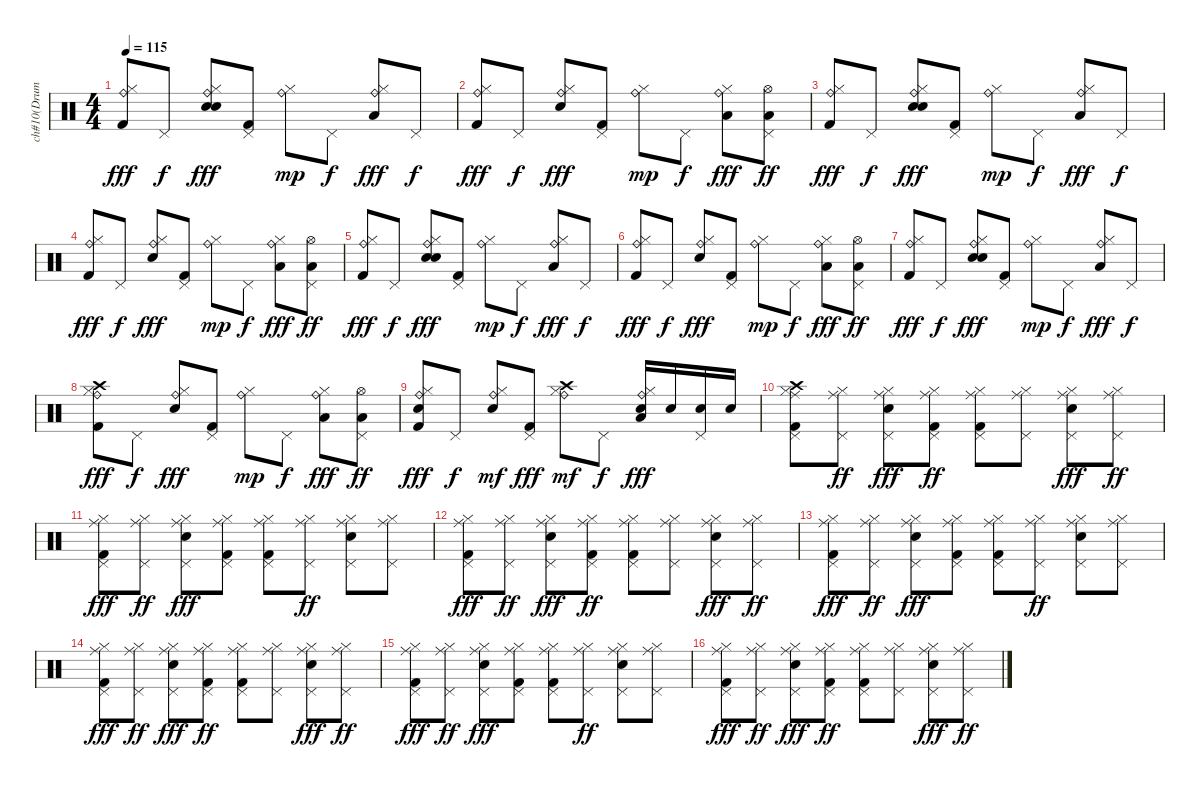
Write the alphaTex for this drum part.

\track ("ch#10(Drums)" "ch#10(Drum") {instrument percussion}
\staff {score}
\articulation defaults
\ts (4 4)
\tempo 115
\clef neutral
\ks c
("Ride (bell)" "Hi-Hat (closed)" "Kick (hit) 2").8{dy fff} "Pedal Hi-Hat (hit)".8{dy f} ("Electric Snare (hit)" "Ride (bell)" "Hi-Hat (closed)" "Electric Snare (hit)").8{dy fff} ("Kick (hit) 2" "Pedal Hi-Hat (hit)").8 ("Ride (bell)" "Hi-Hat (closed)").8{dy mp} "Pedal Hi-Hat (hit)".8{dy f} ("Ride (bell)" "Low Floor Tom (hit)" "Hi-Hat (closed)").8{dy fff} "Pedal Hi-Hat (hit)".8{dy f} |
("Ride (bell)" "Hi-Hat (closed)" "Kick (hit) 2").8{dy fff} "Pedal Hi-Hat (hit)".8{dy f} ("Ride (bell)" "Hi-Hat (closed)" "Electric Snare (hit)").8{dy fff} ("Pedal Hi-Hat (hit)" "Kick (hit) 2").8 ("Ride (bell)" "Hi-Hat (closed)").8{dy mp} "Pedal Hi-Hat (hit)".8{dy f} ("Ride (bell)" "Low Floor Tom (hit)" "Hi-Hat (closed)").8{dy fff} ("Hi-Hat (open)" "Low Floor Tom (hit)" "Pedal Hi-Hat (hit)").8{dy ff} |
("Ride (bell)" "Hi-Hat (closed)" "Kick (hit) 2").8{dy fff} "Pedal Hi-Hat (hit)".8{dy f} ("Electric Snare (hit)" "Ride (bell)" "Hi-Hat (closed)" "Electric Snare (hit)").8{dy fff} ("Kick (hit) 2" "Pedal Hi-Hat (hit)").8 ("Ride (bell)" "Hi-Hat (closed)").8{dy mp} "Pedal Hi-Hat (hit)".8{dy f} ("Ride (bell)" "Low Floor Tom (hit)" "Hi-Hat (closed)").8{dy fff} "Pedal Hi-Hat (hit)".8{dy f} |
("Ride (bell)" "Hi-Hat (closed)" "Kick (hit) 2").8{dy fff} "Pedal Hi-Hat (hit)".8{dy f} ("Ride (bell)" "Hi-Hat (closed)" "Electric Snare (hit)").8{dy fff} ("Pedal Hi-Hat (hit)" "Kick (hit) 2").8 ("Ride (bell)" "Hi-Hat (closed)").8{dy mp} "Pedal Hi-Hat (hit)".8{dy f} ("Ride (bell)" "Low Floor Tom (hit)" "Hi-Hat (closed)").8{dy fff} ("Hi-Hat (open)" "Low Floor Tom (hit)" "Pedal Hi-Hat (hit)").8{dy ff} |
("Ride (bell)" "Hi-Hat (closed)" "Kick (hit) 2").8{dy fff} "Pedal Hi-Hat (hit)".8{dy f} ("Electric Snare (hit)" "Ride (bell)" "Hi-Hat (closed)" "Electric Snare (hit)").8{dy fff} ("Kick (hit) 2" "Pedal Hi-Hat (hit)").8 ("Ride (bell)" "Hi-Hat (closed)").8{dy mp} "Pedal Hi-Hat (hit)".8{dy f} ("Ride (bell)" "Low Floor Tom (hit)" "Hi-Hat (closed)").8{dy fff} "Pedal Hi-Hat (hit)".8{dy f} |
("Ride (bell)" "Hi-Hat (closed)" "Kick (hit) 2").8{dy fff} "Pedal Hi-Hat (hit)".8{dy f} ("Ride (bell)" "Hi-Hat (closed)" "Electric Snare (hit)").8{dy fff} ("Pedal Hi-Hat (hit)" "Kick (hit) 2").8 ("Ride (bell)" "Hi-Hat (closed)").8{dy mp} "Pedal Hi-Hat (hit)".8{dy f} ("Ride (bell)" "Low Floor Tom (hit)" "Hi-Hat (closed)").8{dy fff} ("Hi-Hat (open)" "Low Floor Tom (hit)" "Pedal Hi-Hat (hit)").8{dy ff} |
("Ride (bell)" "Hi-Hat (closed)" "Kick (hit) 2").8{dy fff} "Pedal Hi-Hat (hit)".8{dy f} ("Electric Snare (hit)" "Ride (bell)" "Hi-Hat (closed)" "Electric Snare (hit)").8{dy fff} ("Kick (hit) 2" "Pedal Hi-Hat (hit)").8 ("Ride (bell)" "Hi-Hat (closed)").8{dy mp} "Pedal Hi-Hat (hit)".8{dy f} ("Ride (bell)" "Low Floor Tom (hit)" "Hi-Hat (closed)").8{dy fff} "Pedal Hi-Hat (hit)".8{dy f} |
("Ride (bell)" "Hi-Hat (closed)" "Kick (hit) 2" "Crash high (hit)").8{dy fff} "Pedal Hi-Hat (hit)".8{dy f} ("Ride (bell)" "Hi-Hat (closed)" "Electric Snare (hit)").8{dy fff} ("Pedal Hi-Hat (hit)" "Kick (hit) 2").8 ("Ride (bell)" "Hi-Hat (closed)").8{dy mp} "Pedal Hi-Hat (hit)".8{dy f} ("Ride (bell)" "Low Floor Tom (hit)" "Hi-Hat (closed)").8{dy fff} ("Hi-Hat (open)" "Low Floor Tom (hit)" "Pedal Hi-Hat (hit)").8{dy ff} |
("Electric Snare (hit)" "Ride (bell)" "Hi-Hat (closed)" "Kick (hit) 2").8{dy fff} "Pedal Hi-Hat (hit)".8{dy f} ("Electric Snare (hit)" "Ride (bell)" "Hi-Hat (closed)").8{dy mf} ("Kick (hit) 2" "Pedal Hi-Hat (hit)").8{dy fff} ("Crash high (hit)" "Ride (bell)" "Hi-Hat (closed)").8{dy mf} "Pedal Hi-Hat (hit)".8{dy f} ("Electric Snare (hit)" "Ride (bell)" "Low Floor Tom (hit)" "Hi-Hat (closed)").16{dy fff} "Electric Snare (hit)".16 ("Electric Snare (hit)" "Pedal Hi-Hat (hit)").16 "Electric Snare (hit)".16 |
("Crash high (hit)" "Hi-Hat (closed)" "Kick (hit) 2" "Ride (middle)" "Pedal Hi-Hat (hit)").8 ("Pedal Hi-Hat (hit)" "Hi-Hat (closed)" "Ride (middle)").8{dy ff} ("Pedal Hi-Hat (hit)" "Hi-Hat (closed)" "Ride (middle)" "Electric Snare (hit)").8{dy fff} ("Ride (middle)" "Kick (hit) 2" "Hi-Hat (closed)" "Pedal Hi-Hat (hit)").8{dy ff} ("Pedal Hi-Hat (hit)" "Ride (middle)" "Kick (hit) 2" "Hi-Hat (closed)").8 ("Ride (middle)" "Hi-Hat (closed)" "Pedal Hi-Hat (hit)").8 ("Pedal Hi-Hat (hit)" "Ride (middle)" "Hi-Hat (closed)" "Electric Snare (hit)").8{dy fff} ("Ride (middle)" "Hi-Hat (closed)" "Pedal Hi-Hat (hit)").8{dy ff} |
("Pedal Hi-Hat (hit)" "Ride (middle)" "Hi-Hat (closed)" "Kick (hit) 2").8{dy fff} ("Pedal Hi-Hat (hit)" "Ride (middle)" "Hi-Hat (closed)").8{dy ff} ("Pedal Hi-Hat (hit)" "Hi-Hat (closed)" "Electric Snare (hit)" "Ride (middle)").8{dy fff} ("Pedal Hi-Hat (hit)" "Hi-Hat (closed)" "Kick (hit) 2" "Ride (middle)").8 ("Pedal Hi-Hat (hit)" "Hi-Hat (closed)" "Kick (hit) 2" "Ride (middle)").8 ("Pedal Hi-Hat (hit)" "Hi-Hat (closed)" "Ride (middle)").8{dy ff} ("Pedal Hi-Hat (hit)" "Electric Snare (hit)" "Hi-Hat (closed)" "Ride (middle)").8 ("Pedal Hi-Hat (hit)" "Hi-Hat (closed)" "Ride (middle)").8 |
("Hi-Hat (closed)" "Kick (hit) 2" "Ride (middle)" "Pedal Hi-Hat (hit)").8{dy fff} ("Pedal Hi-Hat (hit)" "Hi-Hat (closed)" "Ride (middle)").8{dy ff} ("Pedal Hi-Hat (hit)" "Hi-Hat (closed)" "Ride (middle)" "Electric Snare (hit)").8{dy fff} ("Ride (middle)" "Kick (hit) 2" "Hi-Hat (closed)" "Pedal Hi-Hat (hit)").8{dy ff} ("Pedal Hi-Hat (hit)" "Ride (middle)" "Kick (hit) 2" "Hi-Hat (closed)").8 ("Ride (middle)" "Hi-Hat (closed)" "Pedal Hi-Hat (hit)").8 ("Pedal Hi-Hat (hit)" "Ride (middle)" "Hi-Hat (closed)" "Electric Snare (hit)").8{dy fff} ("Ride (middle)" "Hi-Hat (closed)" "Pedal Hi-Hat (hit)").8{dy ff} |
("Pedal Hi-Hat (hit)" "Ride (middle)" "Hi-Hat (closed)" "Kick (hit) 2").8{dy fff} ("Pedal Hi-Hat (hit)" "Ride (middle)" "Hi-Hat (closed)").8{dy ff} ("Pedal Hi-Hat (hit)" "Hi-Hat (closed)" "Electric Snare (hit)" "Ride (middle)").8{dy fff} ("Pedal Hi-Hat (hit)" "Hi-Hat (closed)" "Kick (hit) 2" "Ride (middle)").8 ("Pedal Hi-Hat (hit)" "Hi-Hat (closed)" "Kick (hit) 2" "Ride (middle)").8 ("Pedal Hi-Hat (hit)" "Hi-Hat (closed)" "Ride (middle)").8{dy ff} ("Pedal Hi-Hat (hit)" "Electric Snare (hit)" "Hi-Hat (closed)" "Ride (middle)").8 ("Pedal Hi-Hat (hit)" "Hi-Hat (closed)" "Ride (middle)").8 |
("Hi-Hat (closed)" "Kick (hit) 2" "Ride (middle)" "Pedal Hi-Hat (hit)").8{dy fff} ("Pedal Hi-Hat (hit)" "Hi-Hat (closed)" "Ride (middle)").8{dy ff} ("Pedal Hi-Hat (hit)" "Hi-Hat (closed)" "Ride (middle)" "Electric Snare (hit)").8{dy fff} ("Ride (middle)" "Kick (hit) 2" "Hi-Hat (closed)" "Pedal Hi-Hat (hit)").8{dy ff} ("Pedal Hi-Hat (hit)" "Ride (middle)" "Kick (hit) 2" "Hi-Hat (closed)").8 ("Ride (middle)" "Hi-Hat (closed)" "Pedal Hi-Hat (hit)").8 ("Pedal Hi-Hat (hit)" "Ride (middle)" "Hi-Hat (closed)" "Electric Snare (hit)").8{dy fff} ("Ride (middle)" "Hi-Hat (closed)" "Pedal Hi-Hat (hit)").8{dy ff} |
("Pedal Hi-Hat (hit)" "Ride (middle)" "Hi-Hat (closed)" "Kick (hit) 2").8{dy fff} ("Pedal Hi-Hat (hit)" "Ride (middle)" "Hi-Hat (closed)").8{dy ff} ("Pedal Hi-Hat (hit)" "Hi-Hat (closed)" "Electric Snare (hit)" "Ride (middle)").8{dy fff} ("Pedal Hi-Hat (hit)" "Hi-Hat (closed)" "Kick (hit) 2" "Ride (middle)").8 ("Pedal Hi-Hat (hit)" "Hi-Hat (closed)" "Kick (hit) 2" "Ride (middle)").8 ("Pedal Hi-Hat (hit)" "Hi-Hat (closed)" "Ride (middle)").8{dy ff} ("Pedal Hi-Hat (hit)" "Electric Snare (hit)" "Hi-Hat (closed)" "Ride (middle)").8 ("Pedal Hi-Hat (hit)" "Hi-Hat (closed)" "Ride (middle)").8 |
("Hi-Hat (closed)" "Kick (hit) 2" "Ride (middle)" "Pedal Hi-Hat (hit)").8{dy fff} ("Pedal Hi-Hat (hit)" "Hi-Hat (closed)" "Ride (middle)").8{dy ff} ("Pedal Hi-Hat (hit)" "Hi-Hat (closed)" "Ride (middle)" "Electric Snare (hit)").8{dy fff} ("Ride (middle)" "Kick (hit) 2" "Hi-Hat (closed)" "Pedal Hi-Hat (hit)").8{dy ff} ("Pedal Hi-Hat (hit)" "Ride (middle)" "Kick (hit) 2" "Hi-Hat (closed)").8 ("Ride (middle)" "Hi-Hat (closed)" "Pedal Hi-Hat (hit)").8 ("Pedal Hi-Hat (hit)" "Ride (middle)" "Hi-Hat (closed)" "Electric Snare (hit)").8{dy fff} ("Ride (middle)" "Hi-Hat (closed)" "Pedal Hi-Hat (hit)").8{dy ff}
